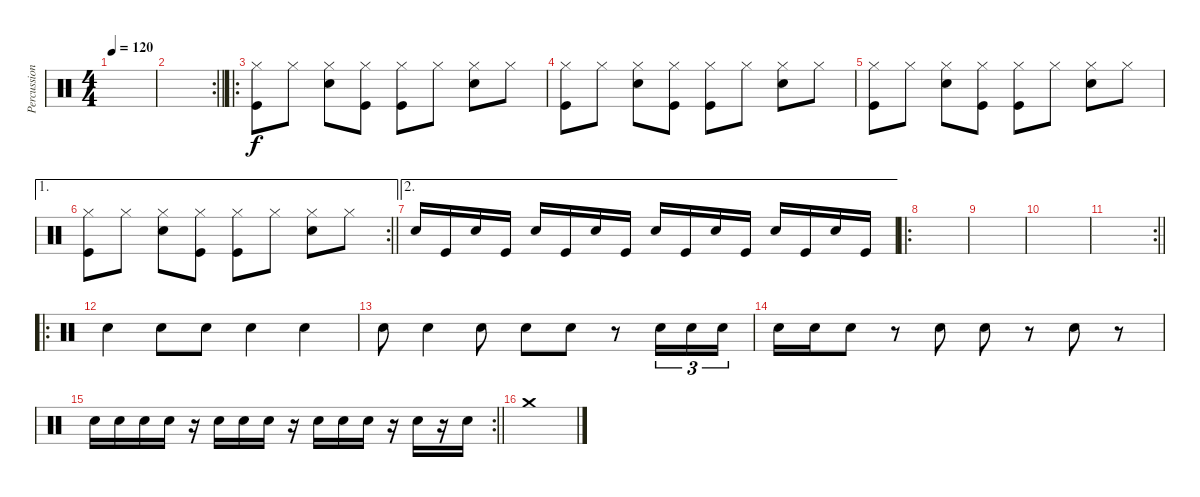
\track ("Percussion" "Percussion") {instrument percussion}
\staff {score}
\articulation defaults
\ts (4 4)
\tempo 120
\clef neutral
\ks c
|
\rc 2
\barLineRight lightlight
|
\ro
("Hi-Hat (closed)" "Kick (hit)").8 "Hi-Hat (closed)".8 ("Hi-Hat (closed)" "Snare (hit) 2").8 ("Hi-Hat (closed)" "Kick (hit)").8 ("Hi-Hat (closed)" "Kick (hit)").8 "Hi-Hat (closed)".8 ("Hi-Hat (closed)" "Snare (hit) 2").8 "Hi-Hat (closed)".8 |
("Hi-Hat (closed)" "Kick (hit)").8 "Hi-Hat (closed)".8 ("Hi-Hat (closed)" "Snare (hit) 2").8 ("Hi-Hat (closed)" "Kick (hit)").8 ("Hi-Hat (closed)" "Kick (hit)").8 "Hi-Hat (closed)".8 ("Hi-Hat (closed)" "Snare (hit) 2").8 "Hi-Hat (closed)".8 |
("Hi-Hat (closed)" "Kick (hit)").8 "Hi-Hat (closed)".8 ("Hi-Hat (closed)" "Snare (hit) 2").8 ("Hi-Hat (closed)" "Kick (hit)").8 ("Hi-Hat (closed)" "Kick (hit)").8 "Hi-Hat (closed)".8 ("Hi-Hat (closed)" "Snare (hit) 2").8 "Hi-Hat (closed)".8 |
\ae 1
\rc 2
\barLineRight lightlight
("Hi-Hat (closed)" "Kick (hit)").8 "Hi-Hat (closed)".8 ("Hi-Hat (closed)" "Snare (hit) 2").8 ("Hi-Hat (closed)" "Kick (hit)").8 ("Hi-Hat (closed)" "Kick (hit)").8 "Hi-Hat (closed)".8 ("Hi-Hat (closed)" "Snare (hit) 2").8 "Hi-Hat (closed)".8 |
\ae 2 "Snare (hit) 2".16 "Kick (hit)".16 "Snare (hit) 2".16 "Kick (hit)".16 "Snare (hit) 2".16 "Kick (hit)".16 "Snare (hit) 2".16 "Kick (hit)".16 "Snare (hit) 2".16 "Kick (hit)".16 "Snare (hit) 2".16 "Kick (hit)".16 "Snare (hit) 2".16 "Kick (hit)".16 "Snare (hit) 2".16 "Kick (hit)".16
|
\ro
|
|
|
\rc 2
\barLineRight lightlight
|
\ro "Snare (hit) 2".4 "Snare (hit) 2".8 "Snare (hit) 2".8 "Snare (hit) 2".4 "Snare (hit) 2"{tr (38 64)}.4
|
"Snare (hit) 2".8 "Snare (hit) 2".4 "Snare (hit) 2".8 "Snare (hit) 2".8 "Snare (hit) 2".8 r.8 "Snare (hit) 2".16{tu (3 2)} "Snare (hit) 2".16{tu (3 2)} "Snare (hit) 2".16{tu (3 2)} |
"Snare (hit) 2".16 "Snare (hit) 2".16 "Snare (hit) 2".8 r.8 "Snare (hit) 2".8 "Snare (hit) 2".8 r.8 "Snare (hit) 2".8 r.8 |
\rc 2
\barLineRight lightlight "Snare (hit) 2".16 "Snare (hit) 2".16 "Snare (hit) 2".16 "Snare (hit) 2".16
r.16 "Snare (hit) 2".16 "Snare (hit) 2".16 "Snare (hit) 2".16 r.16 "Snare (hit) 2".16 "Snare (hit) 2".16 "Snare (hit) 2".16 r.16 "Snare (hit) 2".16 r.16 "Snare (hit) 2".16 |
"Crash medium (hit)".1
